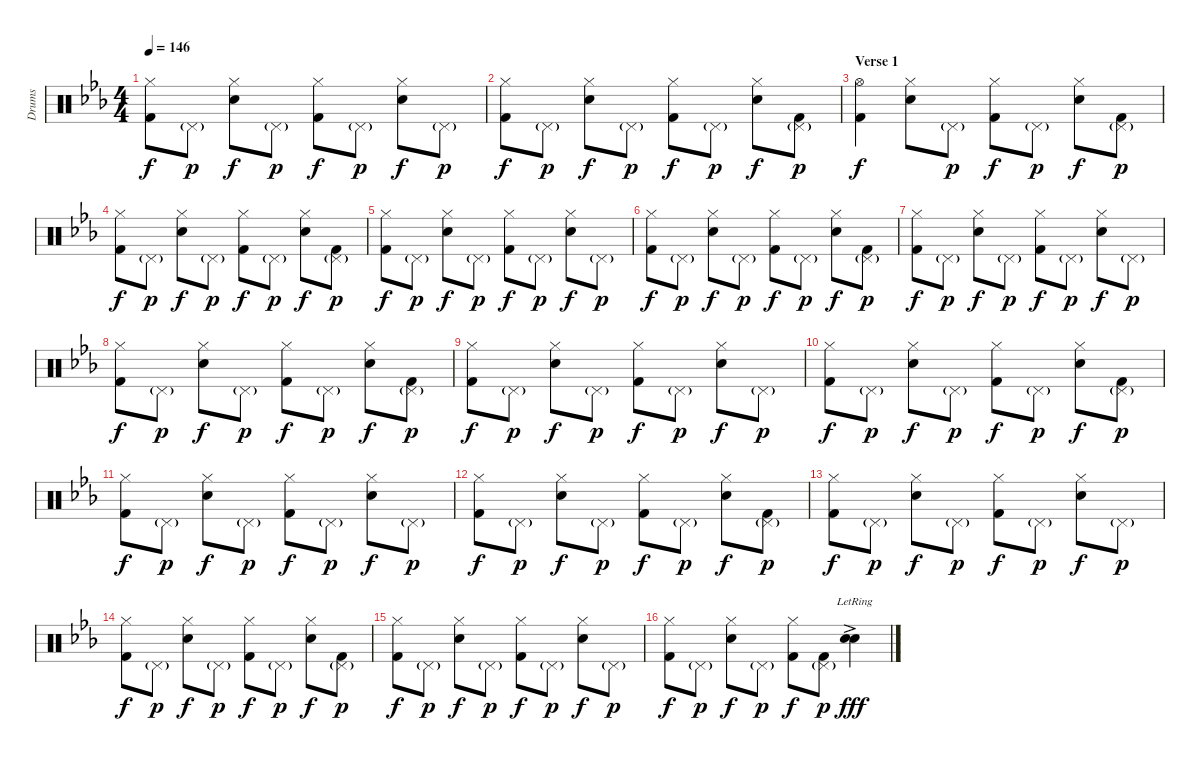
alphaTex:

\track ("Drums" "Drums") {instrument percussion}
\staff {score}
\articulation defaults
\ts (4 4)
\tempo 146
\clef neutral
\ks eb
("Hi-Hat (closed)" "Kick (hit) 2").8{dy f} "Pedal Hi-Hat (hit)"{g}.8{dy p} ("Hi-Hat (closed)" "Electric Snare (hit)").8{dy f} "Pedal Hi-Hat (hit)"{g}.8{dy p} ("Hi-Hat (closed)" "Kick (hit) 2").8{dy f} "Pedal Hi-Hat (hit)"{g}.8{dy p} ("Hi-Hat (closed)" "Electric Snare (hit)").8{dy f} "Pedal Hi-Hat (hit)"{g}.8{dy p} |
("Hi-Hat (closed)" "Kick (hit) 2").8{dy f} "Pedal Hi-Hat (hit)"{g}.8{dy p} ("Hi-Hat (closed)" "Electric Snare (hit)").8{dy f} "Pedal Hi-Hat (hit)"{g}.8{dy p} ("Hi-Hat (closed)" "Kick (hit) 2").8{dy f} "Pedal Hi-Hat (hit)"{g}.8{dy p} ("Hi-Hat (closed)" "Electric Snare (hit)").8{dy f} ("Pedal Hi-Hat (hit)"{g} "Kick (hit) 2").8{dy p} |
\section ("" "Verse 1")
("Hi-Hat (open)" "Kick (hit) 2").4{dy f} ("Hi-Hat (closed)" "Electric Snare (hit)").8 "Pedal Hi-Hat (hit)"{g}.8{dy p} ("Hi-Hat (closed)" "Kick (hit) 2").8{dy f} "Pedal Hi-Hat (hit)"{g}.8{dy p} ("Hi-Hat (closed)" "Electric Snare (hit)").8{dy f} ("Pedal Hi-Hat (hit)"{g} "Kick (hit) 2").8{dy p} |
("Hi-Hat (closed)" "Kick (hit) 2").8{dy f} "Pedal Hi-Hat (hit)"{g}.8{dy p} ("Hi-Hat (closed)" "Electric Snare (hit)").8{dy f} "Pedal Hi-Hat (hit)"{g}.8{dy p} ("Hi-Hat (closed)" "Kick (hit) 2").8{dy f} "Pedal Hi-Hat (hit)"{g}.8{dy p} ("Hi-Hat (closed)" "Electric Snare (hit)").8{dy f} ("Pedal Hi-Hat (hit)"{g} "Kick (hit) 2").8{dy p} |
("Hi-Hat (closed)" "Kick (hit) 2").8{dy f} "Pedal Hi-Hat (hit)"{g}.8{dy p} ("Hi-Hat (closed)" "Electric Snare (hit)").8{dy f} "Pedal Hi-Hat (hit)"{g}.8{dy p} ("Hi-Hat (closed)" "Kick (hit) 2").8{dy f} "Pedal Hi-Hat (hit)"{g}.8{dy p} ("Hi-Hat (closed)" "Electric Snare (hit)").8{dy f} "Pedal Hi-Hat (hit)"{g}.8{dy p} |
("Hi-Hat (closed)" "Kick (hit) 2").8{dy f} "Pedal Hi-Hat (hit)"{g}.8{dy p} ("Hi-Hat (closed)" "Electric Snare (hit)").8{dy f} "Pedal Hi-Hat (hit)"{g}.8{dy p} ("Hi-Hat (closed)" "Kick (hit) 2").8{dy f} "Pedal Hi-Hat (hit)"{g}.8{dy p} ("Hi-Hat (closed)" "Electric Snare (hit)").8{dy f} ("Pedal Hi-Hat (hit)"{g} "Kick (hit) 2").8{dy p} |
("Hi-Hat (closed)" "Kick (hit) 2").8{dy f} "Pedal Hi-Hat (hit)"{g}.8{dy p} ("Hi-Hat (closed)" "Electric Snare (hit)").8{dy f} "Pedal Hi-Hat (hit)"{g}.8{dy p} ("Hi-Hat (closed)" "Kick (hit) 2").8{dy f} "Pedal Hi-Hat (hit)"{g}.8{dy p} ("Hi-Hat (closed)" "Electric Snare (hit)").8{dy f} "Pedal Hi-Hat (hit)"{g}.8{dy p} |
("Hi-Hat (closed)" "Kick (hit) 2").8{dy f} "Pedal Hi-Hat (hit)"{g}.8{dy p} ("Hi-Hat (closed)" "Electric Snare (hit)").8{dy f} "Pedal Hi-Hat (hit)"{g}.8{dy p} ("Hi-Hat (closed)" "Kick (hit) 2").8{dy f} "Pedal Hi-Hat (hit)"{g}.8{dy p} ("Hi-Hat (closed)" "Electric Snare (hit)").8{dy f} ("Pedal Hi-Hat (hit)"{g} "Kick (hit) 2").8{dy p} |
("Hi-Hat (closed)" "Kick (hit) 2").8{dy f} "Pedal Hi-Hat (hit)"{g}.8{dy p} ("Hi-Hat (closed)" "Electric Snare (hit)").8{dy f} "Pedal Hi-Hat (hit)"{g}.8{dy p} ("Hi-Hat (closed)" "Kick (hit) 2").8{dy f} "Pedal Hi-Hat (hit)"{g}.8{dy p} ("Hi-Hat (closed)" "Electric Snare (hit)").8{dy f} "Pedal Hi-Hat (hit)"{g}.8{dy p} |
("Hi-Hat (closed)" "Kick (hit) 2").8{dy f} "Pedal Hi-Hat (hit)"{g}.8{dy p} ("Hi-Hat (closed)" "Electric Snare (hit)").8{dy f} "Pedal Hi-Hat (hit)"{g}.8{dy p} ("Hi-Hat (closed)" "Kick (hit) 2").8{dy f} "Pedal Hi-Hat (hit)"{g}.8{dy p} ("Hi-Hat (closed)" "Electric Snare (hit)").8{dy f} ("Pedal Hi-Hat (hit)"{g} "Kick (hit) 2").8{dy p} |
("Hi-Hat (closed)" "Kick (hit) 2").8{dy f} "Pedal Hi-Hat (hit)"{g}.8{dy p} ("Hi-Hat (closed)" "Electric Snare (hit)").8{dy f} "Pedal Hi-Hat (hit)"{g}.8{dy p} ("Hi-Hat (closed)" "Kick (hit) 2").8{dy f} "Pedal Hi-Hat (hit)"{g}.8{dy p} ("Hi-Hat (closed)" "Electric Snare (hit)").8{dy f} "Pedal Hi-Hat (hit)"{g}.8{dy p} |
("Hi-Hat (closed)" "Kick (hit) 2").8{dy f} "Pedal Hi-Hat (hit)"{g}.8{dy p} ("Hi-Hat (closed)" "Electric Snare (hit)").8{dy f} "Pedal Hi-Hat (hit)"{g}.8{dy p} ("Hi-Hat (closed)" "Kick (hit) 2").8{dy f} "Pedal Hi-Hat (hit)"{g}.8{dy p} ("Hi-Hat (closed)" "Electric Snare (hit)").8{dy f} ("Pedal Hi-Hat (hit)"{g} "Kick (hit) 2").8{dy p} |
("Hi-Hat (closed)" "Kick (hit) 2").8{dy f} "Pedal Hi-Hat (hit)"{g}.8{dy p} ("Hi-Hat (closed)" "Electric Snare (hit)").8{dy f} "Pedal Hi-Hat (hit)"{g}.8{dy p} ("Hi-Hat (closed)" "Kick (hit) 2").8{dy f} "Pedal Hi-Hat (hit)"{g}.8{dy p} ("Hi-Hat (closed)" "Electric Snare (hit)").8{dy f} "Pedal Hi-Hat (hit)"{g}.8{dy p} |
("Hi-Hat (closed)" "Kick (hit) 2").8{dy f} "Pedal Hi-Hat (hit)"{g}.8{dy p} ("Hi-Hat (closed)" "Electric Snare (hit)").8{dy f} "Pedal Hi-Hat (hit)"{g}.8{dy p} ("Hi-Hat (closed)" "Kick (hit) 2").8{dy f} "Pedal Hi-Hat (hit)"{g}.8{dy p} ("Hi-Hat (closed)" "Electric Snare (hit)").8{dy f} ("Pedal Hi-Hat (hit)"{g} "Kick (hit) 2").8{dy p} |
("Hi-Hat (closed)" "Kick (hit) 2").8{dy f} "Pedal Hi-Hat (hit)"{g}.8{dy p} ("Hi-Hat (closed)" "Electric Snare (hit)").8{dy f} "Pedal Hi-Hat (hit)"{g}.8{dy p} ("Hi-Hat (closed)" "Kick (hit) 2").8{dy f} "Pedal Hi-Hat (hit)"{g}.8{dy p} ("Hi-Hat (closed)" "Electric Snare (hit)").8{dy f} "Pedal Hi-Hat (hit)"{g}.8{dy p} |
("Hi-Hat (closed)" "Kick (hit) 2").8{dy f} "Pedal Hi-Hat (hit)"{g}.8{dy p} ("Hi-Hat (closed)" "Electric Snare (hit)").8{dy f} "Pedal Hi-Hat (hit)"{g}.8{dy p} ("Hi-Hat (closed)" "Kick (hit) 2").8{dy f} ("Pedal Hi-Hat (hit)"{g} "Kick (hit) 2").8{dy p} ("Electric Snare (hit)"{ac lr} "Electric Snare (hit)"{ac lr}).4{dy fff}
